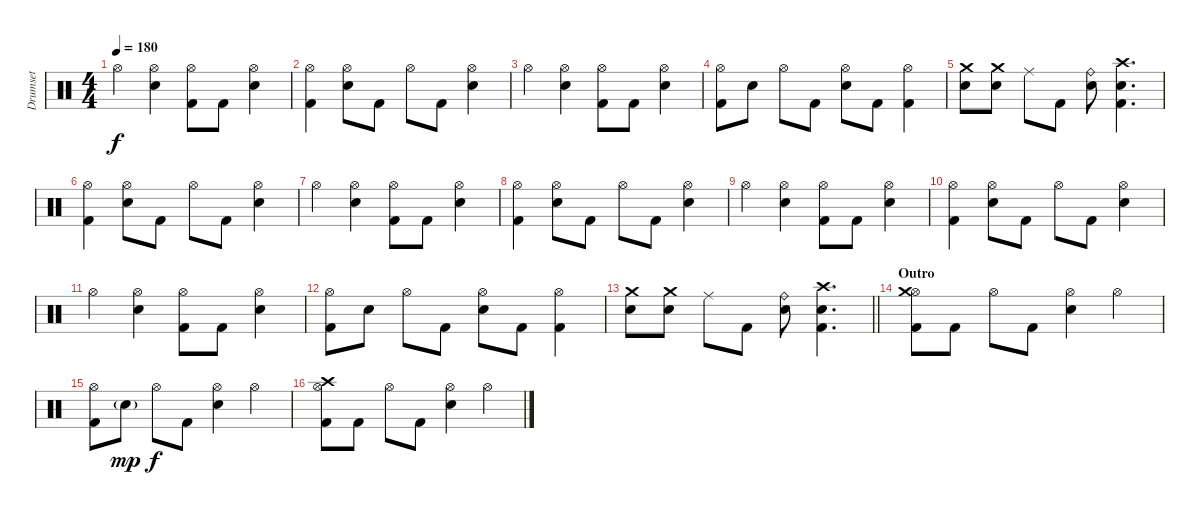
\track ("Drumset" "Drumset") {instrument percussion}
\staff {score}
\articulation defaults
\ts (4 4)
\tempo 180
\clef neutral
\ks c "Hi-Hat (open)".4{dy f}
("Hi-Hat (open)" "Snare (hit) 2").4 ("Hi-Hat (open)" "Kick (hit) 2").8 "Kick (hit) 2".8 ("Hi-Hat (open)" "Snare (hit) 2").4 |
("Hi-Hat (open)" "Kick (hit) 2").4 ("Hi-Hat (open)" "Snare (hit) 2").8 "Kick (hit) 2".8 "Hi-Hat (open)".8 "Kick (hit) 2".8 ("Hi-Hat (open)" "Snare (hit) 2").4 |
"Hi-Hat (open)".4 ("Hi-Hat (open)" "Snare (hit) 2").4 ("Hi-Hat (open)" "Kick (hit) 2").8 "Kick (hit) 2".8 ("Hi-Hat (open)" "Snare (hit) 2").4 |
("Hi-Hat (open)" "Kick (hit) 2").8 "Snare (hit) 2".8 "Hi-Hat (open)".8 "Kick (hit) 2".8 ("Hi-Hat (open)" "Snare (hit) 2").8 "Kick (hit) 2".8 ("Hi-Hat (open)" "Kick (hit) 2").4 |
("Crash medium (hit)" "Snare (hit) 2").8 ("Crash medium (hit)" "Snare (hit) 2").8 "Ride (middle)".8 "Kick (hit) 2".8 ("Ride (bell)" "Snare (hit) 2").8 ("Crash high (hit)" "Snare (hit) 2" "Kick (hit) 2").4{d} |
("Hi-Hat (open)" "Kick (hit) 2").4 ("Hi-Hat (open)" "Snare (hit) 2").8 "Kick (hit) 2".8 "Hi-Hat (open)".8 "Kick (hit) 2".8 ("Hi-Hat (open)" "Snare (hit) 2").4 |
"Hi-Hat (open)".4 ("Hi-Hat (open)" "Snare (hit) 2").4 ("Hi-Hat (open)" "Kick (hit) 2").8 "Kick (hit) 2".8 ("Hi-Hat (open)" "Snare (hit) 2").4 |
("Hi-Hat (open)" "Kick (hit) 2").4 ("Hi-Hat (open)" "Snare (hit) 2").8 "Kick (hit) 2".8 "Hi-Hat (open)".8 "Kick (hit) 2".8 ("Hi-Hat (open)" "Snare (hit) 2").4 |
"Hi-Hat (open)".4 ("Hi-Hat (open)" "Snare (hit) 2").4 ("Hi-Hat (open)" "Kick (hit) 2").8 "Kick (hit) 2".8 ("Hi-Hat (open)" "Snare (hit) 2").4 |
("Hi-Hat (open)" "Kick (hit) 2").4 ("Hi-Hat (open)" "Snare (hit) 2").8 "Kick (hit) 2".8 "Hi-Hat (open)".8 "Kick (hit) 2".8 ("Hi-Hat (open)" "Snare (hit) 2").4 |
"Hi-Hat (open)".4 ("Hi-Hat (open)" "Snare (hit) 2").4 ("Hi-Hat (open)" "Kick (hit) 2").8 "Kick (hit) 2".8 ("Hi-Hat (open)" "Snare (hit) 2").4 |
("Hi-Hat (open)" "Kick (hit) 2").8 "Snare (hit) 2".8 "Hi-Hat (open)".8 "Kick (hit) 2".8 ("Hi-Hat (open)" "Snare (hit) 2").8 "Kick (hit) 2".8 ("Hi-Hat (open)" "Kick (hit) 2").4 |
\barLineRight lightlight
("Crash medium (hit)" "Snare (hit) 2").8 ("Crash medium (hit)" "Snare (hit) 2").8 "Ride (middle)".8 "Kick (hit) 2".8 ("Ride (bell)" "Snare (hit) 2").8 ("Crash high (hit)" "Snare (hit) 2" "Kick (hit) 2").4{d} |
\section ("" "Outro")
("Hi-Hat (open)" "Crash medium (hit)" "Kick (hit) 2").8 "Kick (hit) 2".8 "Hi-Hat (open)".8 "Kick (hit) 2".8 ("Hi-Hat (open)" "Snare (hit) 2").4 "Hi-Hat (open)".4 |
("Hi-Hat (open)" "Kick (hit) 2").8 "Snare (hit) 2"{g}.8{dy mp} "Hi-Hat (open)".8{dy f} "Kick (hit) 2".8 ("Hi-Hat (open)" "Snare (hit) 2").4 "Hi-Hat (open)".4 |
("Hi-Hat (open)" "Crash high (hit)" "Kick (hit) 2").8 "Kick (hit) 2".8 "Hi-Hat (open)".8 "Kick (hit) 2".8 ("Hi-Hat (open)" "Snare (hit) 2").4 "Hi-Hat (open)".4
